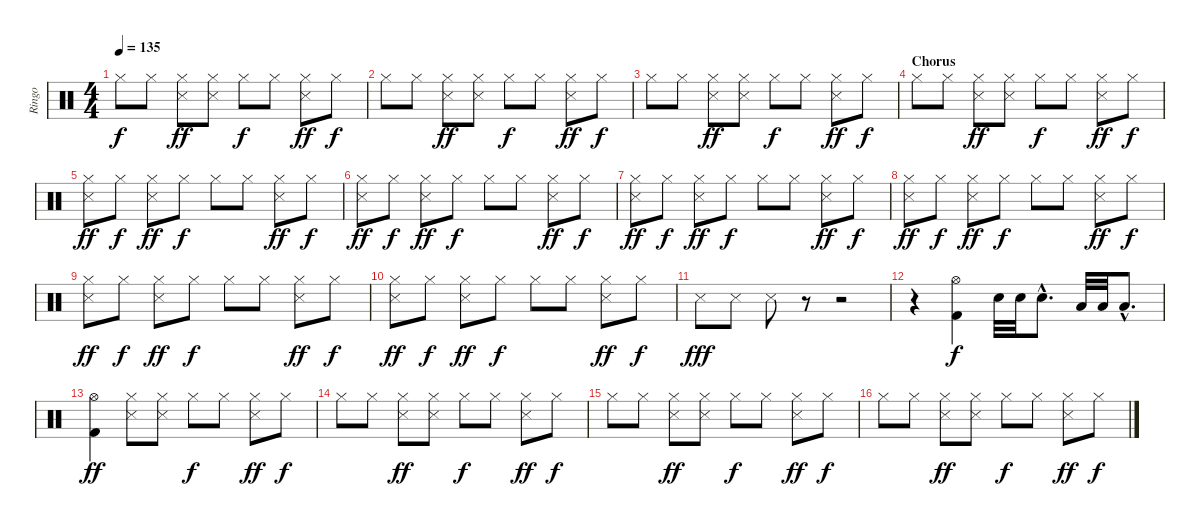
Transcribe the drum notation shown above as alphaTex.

\track ("Ringo" "Ringo") {instrument percussion}
\staff {score}
\articulation defaults
\ts (4 4)
\tempo 135
\clef neutral
\ks c "Hi-Hat (closed)".8{dy f} "Hi-Hat (closed)".8
("Hi-Hat (closed)" "Snare (side stick) 3").8{dy ff} ("Hi-Hat (closed)" "Snare (side stick) 3").8 "Hi-Hat (closed)".8{dy f} "Hi-Hat (closed)".8 ("Hi-Hat (closed)" "Snare (side stick) 3").8{dy ff} "Hi-Hat (closed)".8{dy f} |
"Hi-Hat (closed)".8 "Hi-Hat (closed)".8 ("Hi-Hat (closed)" "Snare (side stick) 3").8{dy ff} ("Hi-Hat (closed)" "Snare (side stick) 3").8 "Hi-Hat (closed)".8{dy f} "Hi-Hat (closed)".8 ("Hi-Hat (closed)" "Snare (side stick) 3").8{dy ff} "Hi-Hat (closed)".8{dy f} |
"Hi-Hat (closed)".8 "Hi-Hat (closed)".8 ("Hi-Hat (closed)" "Snare (side stick) 3").8{dy ff} ("Hi-Hat (closed)" "Snare (side stick) 3").8 "Hi-Hat (closed)".8{dy f} "Hi-Hat (closed)".8 ("Hi-Hat (closed)" "Snare (side stick) 3").8{dy ff} "Hi-Hat (closed)".8{dy f} |
\section ("" "Chorus")
"Hi-Hat (closed)".8 "Hi-Hat (closed)".8 ("Hi-Hat (closed)" "Snare (side stick) 3").8{dy ff} ("Hi-Hat (closed)" "Snare (side stick) 3").8 "Hi-Hat (closed)".8{dy f} "Hi-Hat (closed)".8 ("Hi-Hat (closed)" "Snare (side stick) 3").8{dy ff} "Hi-Hat (closed)".8{dy f} |
("Hi-Hat (closed)" "Snare (side stick) 3").8{dy ff} "Hi-Hat (closed)".8{dy f} ("Hi-Hat (closed)" "Snare (side stick) 3").8{dy ff} "Hi-Hat (closed)".8{dy f} "Hi-Hat (closed)".8 "Hi-Hat (closed)".8 ("Hi-Hat (closed)" "Snare (side stick) 3").8{dy ff} "Hi-Hat (closed)".8{dy f} |
("Hi-Hat (closed)" "Snare (side stick) 3").8{dy ff} "Hi-Hat (closed)".8{dy f} ("Hi-Hat (closed)" "Snare (side stick) 3").8{dy ff} "Hi-Hat (closed)".8{dy f} "Hi-Hat (closed)".8 "Hi-Hat (closed)".8 ("Hi-Hat (closed)" "Snare (side stick) 3").8{dy ff} "Hi-Hat (closed)".8{dy f} |
("Hi-Hat (closed)" "Snare (side stick) 3").8{dy ff} "Hi-Hat (closed)".8{dy f} ("Hi-Hat (closed)" "Snare (side stick) 3").8{dy ff} "Hi-Hat (closed)".8{dy f} "Hi-Hat (closed)".8 "Hi-Hat (closed)".8 ("Hi-Hat (closed)" "Snare (side stick) 3").8{dy ff} "Hi-Hat (closed)".8{dy f} |
("Hi-Hat (closed)" "Snare (side stick) 3").8{dy ff} "Hi-Hat (closed)".8{dy f} ("Hi-Hat (closed)" "Snare (side stick) 3").8{dy ff} "Hi-Hat (closed)".8{dy f} "Hi-Hat (closed)".8 "Hi-Hat (closed)".8 ("Hi-Hat (closed)" "Snare (side stick) 3").8{dy ff} "Hi-Hat (closed)".8{dy f} |
("Hi-Hat (closed)" "Snare (side stick) 3").8{dy ff} "Hi-Hat (closed)".8{dy f} ("Hi-Hat (closed)" "Snare (side stick) 3").8{dy ff} "Hi-Hat (closed)".8{dy f} "Hi-Hat (closed)".8 "Hi-Hat (closed)".8 ("Hi-Hat (closed)" "Snare (side stick) 3").8{dy ff} "Hi-Hat (closed)".8{dy f} |
("Hi-Hat (closed)" "Snare (side stick) 3").8{dy ff} "Hi-Hat (closed)".8{dy f} ("Hi-Hat (closed)" "Snare (side stick) 3").8{dy ff} "Hi-Hat (closed)".8{dy f} "Hi-Hat (closed)".8 "Hi-Hat (closed)".8 ("Hi-Hat (closed)" "Snare (side stick) 3").8{dy ff} "Hi-Hat (closed)".8{dy f} |
"Snare (side stick) 3".8{dy fff} "Snare (side stick) 3".8 "Snare (side stick) 3".8 r.8 r.2 |
r.4 ("Hi-Hat (open)" "Kick (hit) 2").4{dy f} "Electric Snare (hit)".32 "Electric Snare (hit)".32 "Electric Snare (hit)"{hac}.8{d} "Low Tom (hit)".32 "Low Tom (hit)".32 "Low Tom (hit)"{hac}.8{d} |
("Hi-Hat (open)" "Kick (hit) 2").4{dy ff} ("Hi-Hat (closed)" "Snare (side stick) 3").8 ("Hi-Hat (closed)" "Snare (side stick) 3").8 "Hi-Hat (closed)".8{dy f} "Hi-Hat (closed)".8 ("Hi-Hat (closed)" "Snare (side stick) 3").8{dy ff} "Hi-Hat (closed)".8{dy f} |
"Hi-Hat (closed)".8 "Hi-Hat (closed)".8 ("Hi-Hat (closed)" "Snare (side stick) 3").8{dy ff} ("Hi-Hat (closed)" "Snare (side stick) 3").8 "Hi-Hat (closed)".8{dy f} "Hi-Hat (closed)".8 ("Hi-Hat (closed)" "Snare (side stick) 3").8{dy ff} "Hi-Hat (closed)".8{dy f} |
"Hi-Hat (closed)".8 "Hi-Hat (closed)".8 ("Hi-Hat (closed)" "Snare (side stick) 3").8{dy ff} ("Hi-Hat (closed)" "Snare (side stick) 3").8 "Hi-Hat (closed)".8{dy f} "Hi-Hat (closed)".8 ("Hi-Hat (closed)" "Snare (side stick) 3").8{dy ff} "Hi-Hat (closed)".8{dy f} |
"Hi-Hat (closed)".8 "Hi-Hat (closed)".8 ("Hi-Hat (closed)" "Snare (side stick) 3").8{dy ff} ("Hi-Hat (closed)" "Snare (side stick) 3").8 "Hi-Hat (closed)".8{dy f} "Hi-Hat (closed)".8 ("Hi-Hat (closed)" "Snare (side stick) 3").8{dy ff} "Hi-Hat (closed)".8{dy f}
